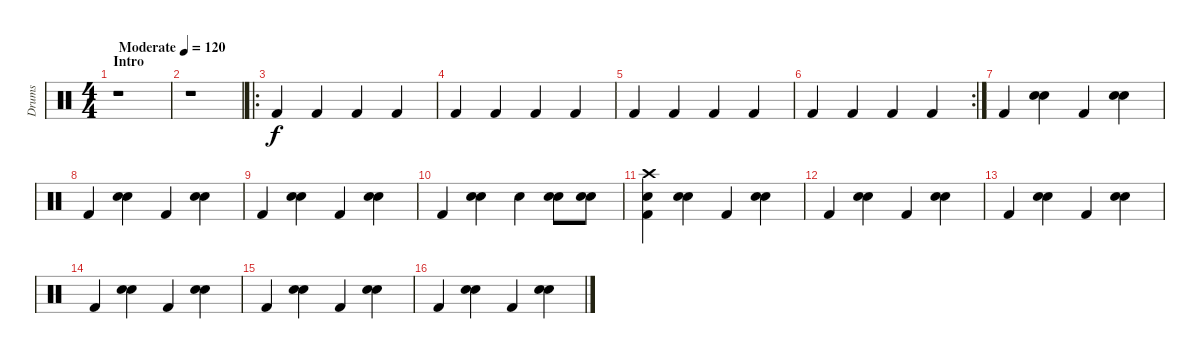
\track ("Drums" "Drums") {instrument percussion}
\staff {score}
\articulation defaults
\ts (4 4)
\section ("" "Intro")
\tempo (120 "Moderate")
\clef neutral
\ks c
r.1{dy f} |
r.1 |
\ro "Kick (hit) 2".4 "Kick (hit) 2".4 "Kick (hit) 2".4 "Kick (hit) 2".4
|
"Kick (hit) 2".4 "Kick (hit) 2".4 "Kick (hit) 2".4 "Kick (hit) 2".4 |
"Kick (hit) 2".4 "Kick (hit) 2".4 "Kick (hit) 2".4 "Kick (hit) 2".4 |
\rc 2 "Kick (hit) 2".4 "Kick (hit) 2".4 "Kick (hit) 2".4 "Kick (hit) 2".4
|
"Kick (hit) 2".4 ("Electric Snare (hit)" "Snare (hit) 2").4 "Kick (hit) 2".4 ("Electric Snare (hit)" "Snare (hit) 2").4 |
"Kick (hit) 2".4 ("Electric Snare (hit)" "Snare (hit) 2").4 "Kick (hit) 2".4 ("Electric Snare (hit)" "Snare (hit) 2").4 |
"Kick (hit) 2".4 ("Electric Snare (hit)" "Snare (hit) 2").4 "Kick (hit) 2".4 ("Electric Snare (hit)" "Snare (hit) 2").4 |
"Kick (hit) 2".4 ("Electric Snare (hit)" "Snare (hit) 2").4 "Snare (hit) 2".4 ("Electric Snare (hit)" "Snare (hit) 2").8 ("Electric Snare (hit)" "Snare (hit) 2").8 |
("Electric Snare (hit)" "Crash high (hit)" "Kick (hit) 2").4 ("Electric Snare (hit)" "Snare (hit) 2").4 "Kick (hit) 2".4 ("Electric Snare (hit)" "Snare (hit) 2").4 |
"Kick (hit) 2".4 ("Electric Snare (hit)" "Snare (hit) 2").4 "Kick (hit) 2".4 ("Electric Snare (hit)" "Snare (hit) 2").4 |
"Kick (hit) 2".4 ("Electric Snare (hit)" "Snare (hit) 2").4 "Kick (hit) 2".4 ("Electric Snare (hit)" "Snare (hit) 2").4 |
"Kick (hit) 2".4 ("Electric Snare (hit)" "Snare (hit) 2").4 "Kick (hit) 2".4 ("Electric Snare (hit)" "Snare (hit) 2").4 |
"Kick (hit) 2".4 ("Electric Snare (hit)" "Snare (hit) 2").4 "Kick (hit) 2".4 ("Electric Snare (hit)" "Snare (hit) 2").4 |
"Kick (hit) 2".4 ("Electric Snare (hit)" "Snare (hit) 2").4 "Kick (hit) 2".4 ("Electric Snare (hit)" "Snare (hit) 2").4
